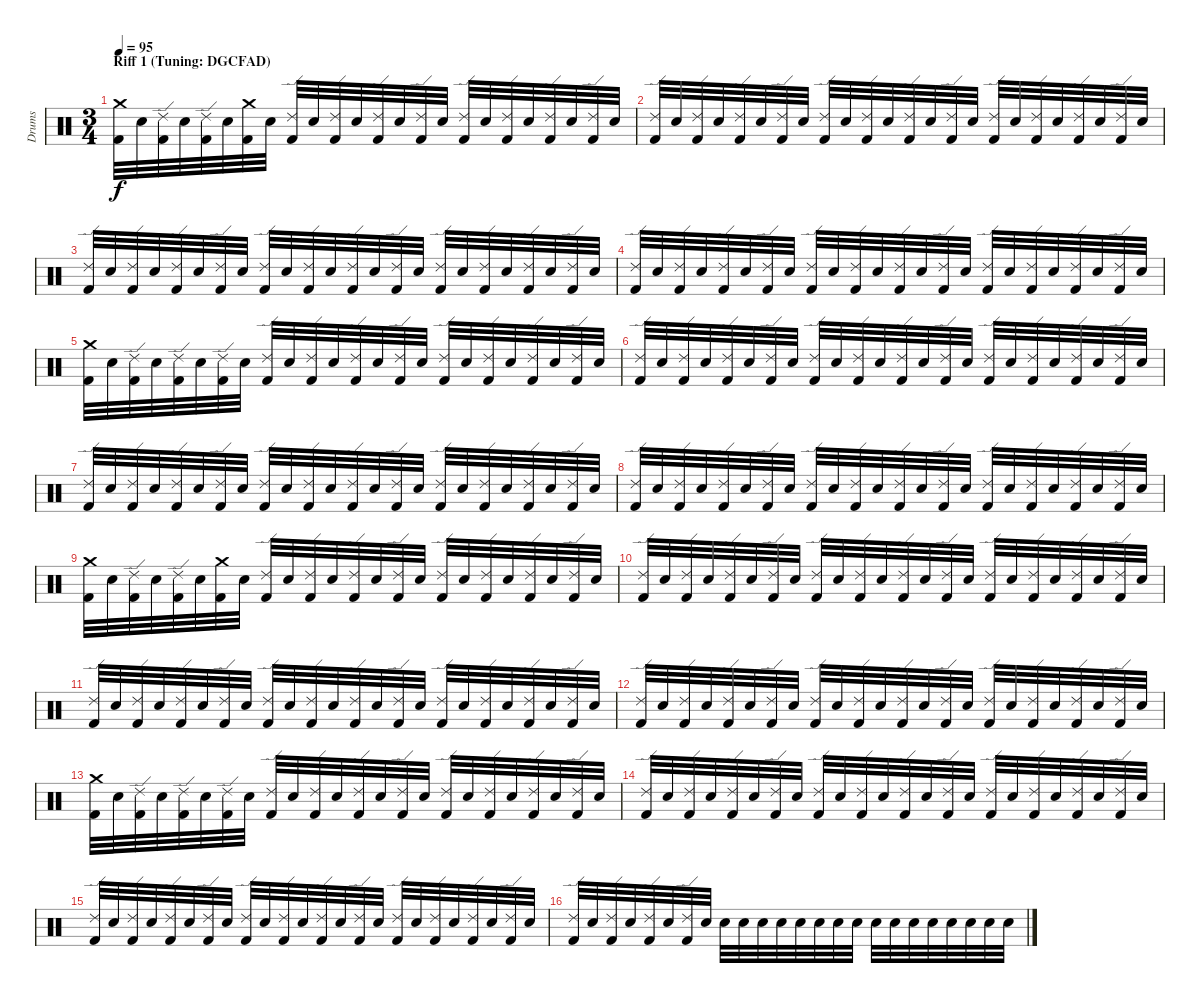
\track ("Drums" "Drums") {instrument percussion}
\staff {score}
\articulation defaults
\ts (3 4)
\section ("" "Riff 1 (Tuning: DGCFAD)")
\tempo 95
\clef neutral
\ks c
("Crash medium (hit)" "Kick (hit) 2").32{dy f} "Electric Snare (hit)".32 ("Ride (edge) 2" "Kick (hit) 2").32 "Electric Snare (hit)".32 ("Ride (edge) 2" "Kick (hit) 2").32 "Electric Snare (hit)".32 ("Crash medium (hit)" "Kick (hit) 2").32 "Electric Snare (hit)".32 ("Ride (edge) 2" "Kick (hit) 2").32 "Electric Snare (hit)".32 ("Ride (edge) 2" "Kick (hit) 2").32 "Electric Snare (hit)".32 ("Ride (edge) 2" "Kick (hit) 2").32 "Electric Snare (hit)".32 ("Ride (edge) 2" "Kick (hit) 2").32 "Electric Snare (hit)".32 ("Ride (edge) 2" "Kick (hit) 2").32 "Electric Snare (hit)".32 ("Ride (edge) 2" "Kick (hit) 2").32 "Electric Snare (hit)".32 ("Ride (edge) 2" "Kick (hit) 2").32 "Electric Snare (hit)".32 ("Ride (edge) 2" "Kick (hit) 2").32 "Electric Snare (hit)".32 |
("Ride (edge) 2" "Kick (hit) 2").32 "Electric Snare (hit)".32 ("Ride (edge) 2" "Kick (hit) 2").32 "Electric Snare (hit)".32 ("Ride (edge) 2" "Kick (hit) 2").32 "Electric Snare (hit)".32 ("Ride (edge) 2" "Kick (hit) 2").32 "Electric Snare (hit)".32 ("Ride (edge) 2" "Kick (hit) 2").32 "Electric Snare (hit)".32 ("Ride (edge) 2" "Kick (hit) 2").32 "Electric Snare (hit)".32 ("Ride (edge) 2" "Kick (hit) 2").32 "Electric Snare (hit)".32 ("Ride (edge) 2" "Kick (hit) 2").32 "Electric Snare (hit)".32 ("Ride (edge) 2" "Kick (hit) 2").32 "Electric Snare (hit)".32 ("Ride (edge) 2" "Kick (hit) 2").32 "Electric Snare (hit)".32 ("Ride (edge) 2" "Kick (hit) 2").32 "Electric Snare (hit)".32 ("Ride (edge) 2" "Kick (hit) 2").32 "Electric Snare (hit)".32 |
("Ride (edge) 2" "Kick (hit) 2").32 "Electric Snare (hit)".32 ("Ride (edge) 2" "Kick (hit) 2").32 "Electric Snare (hit)".32 ("Ride (edge) 2" "Kick (hit) 2").32 "Electric Snare (hit)".32 ("Ride (edge) 2" "Kick (hit) 2").32 "Electric Snare (hit)".32 ("Ride (edge) 2" "Kick (hit) 2").32 "Electric Snare (hit)".32 ("Ride (edge) 2" "Kick (hit) 2").32 "Electric Snare (hit)".32 ("Ride (edge) 2" "Kick (hit) 2").32 "Electric Snare (hit)".32 ("Ride (edge) 2" "Kick (hit) 2").32 "Electric Snare (hit)".32 ("Ride (edge) 2" "Kick (hit) 2").32 "Electric Snare (hit)".32 ("Ride (edge) 2" "Kick (hit) 2").32 "Electric Snare (hit)".32 ("Ride (edge) 2" "Kick (hit) 2").32 "Electric Snare (hit)".32 ("Ride (edge) 2" "Kick (hit) 2").32 "Electric Snare (hit)".32 |
("Ride (edge) 2" "Kick (hit) 2").32 "Electric Snare (hit)".32 ("Ride (edge) 2" "Kick (hit) 2").32 "Electric Snare (hit)".32 ("Ride (edge) 2" "Kick (hit) 2").32 "Electric Snare (hit)".32 ("Ride (edge) 2" "Kick (hit) 2").32 "Electric Snare (hit)".32 ("Ride (edge) 2" "Kick (hit) 2").32 "Electric Snare (hit)".32 ("Ride (edge) 2" "Kick (hit) 2").32 "Electric Snare (hit)".32 ("Ride (edge) 2" "Kick (hit) 2").32 "Electric Snare (hit)".32 ("Ride (edge) 2" "Kick (hit) 2").32 "Electric Snare (hit)".32 ("Ride (edge) 2" "Kick (hit) 2").32 "Electric Snare (hit)".32 ("Ride (edge) 2" "Kick (hit) 2").32 "Electric Snare (hit)".32 ("Ride (edge) 2" "Kick (hit) 2").32 "Electric Snare (hit)".32 ("Ride (edge) 2" "Kick (hit) 2").32 "Electric Snare (hit)".32 |
("Crash medium (hit)" "Kick (hit) 2").32 "Electric Snare (hit)".32 ("Ride (edge) 2" "Kick (hit) 2").32 "Electric Snare (hit)".32 ("Ride (edge) 2" "Kick (hit) 2").32 "Electric Snare (hit)".32 ("Ride (edge) 2" "Kick (hit) 2").32 "Electric Snare (hit)".32 ("Ride (edge) 2" "Kick (hit) 2").32 "Electric Snare (hit)".32 ("Ride (edge) 2" "Kick (hit) 2").32 "Electric Snare (hit)".32 ("Ride (edge) 2" "Kick (hit) 2").32 "Electric Snare (hit)".32 ("Ride (edge) 2" "Kick (hit) 2").32 "Electric Snare (hit)".32 ("Ride (edge) 2" "Kick (hit) 2").32 "Electric Snare (hit)".32 ("Ride (edge) 2" "Kick (hit) 2").32 "Electric Snare (hit)".32 ("Ride (edge) 2" "Kick (hit) 2").32 "Electric Snare (hit)".32 ("Ride (edge) 2" "Kick (hit) 2").32 "Electric Snare (hit)".32 |
("Ride (edge) 2" "Kick (hit) 2").32 "Electric Snare (hit)".32 ("Ride (edge) 2" "Kick (hit) 2").32 "Electric Snare (hit)".32 ("Ride (edge) 2" "Kick (hit) 2").32 "Electric Snare (hit)".32 ("Ride (edge) 2" "Kick (hit) 2").32 "Electric Snare (hit)".32 ("Ride (edge) 2" "Kick (hit) 2").32 "Electric Snare (hit)".32 ("Ride (edge) 2" "Kick (hit) 2").32 "Electric Snare (hit)".32 ("Ride (edge) 2" "Kick (hit) 2").32 "Electric Snare (hit)".32 ("Ride (edge) 2" "Kick (hit) 2").32 "Electric Snare (hit)".32 ("Ride (edge) 2" "Kick (hit) 2").32 "Electric Snare (hit)".32 ("Ride (edge) 2" "Kick (hit) 2").32 "Electric Snare (hit)".32 ("Ride (edge) 2" "Kick (hit) 2").32 "Electric Snare (hit)".32 ("Ride (edge) 2" "Kick (hit) 2").32 "Electric Snare (hit)".32 |
("Ride (edge) 2" "Kick (hit) 2").32 "Electric Snare (hit)".32 ("Ride (edge) 2" "Kick (hit) 2").32 "Electric Snare (hit)".32 ("Ride (edge) 2" "Kick (hit) 2").32 "Electric Snare (hit)".32 ("Ride (edge) 2" "Kick (hit) 2").32 "Electric Snare (hit)".32 ("Ride (edge) 2" "Kick (hit) 2").32 "Electric Snare (hit)".32 ("Ride (edge) 2" "Kick (hit) 2").32 "Electric Snare (hit)".32 ("Ride (edge) 2" "Kick (hit) 2").32 "Electric Snare (hit)".32 ("Ride (edge) 2" "Kick (hit) 2").32 "Electric Snare (hit)".32 ("Ride (edge) 2" "Kick (hit) 2").32 "Electric Snare (hit)".32 ("Ride (edge) 2" "Kick (hit) 2").32 "Electric Snare (hit)".32 ("Ride (edge) 2" "Kick (hit) 2").32 "Electric Snare (hit)".32 ("Ride (edge) 2" "Kick (hit) 2").32 "Electric Snare (hit)".32 |
("Ride (edge) 2" "Kick (hit) 2").32 "Electric Snare (hit)".32 ("Ride (edge) 2" "Kick (hit) 2").32 "Electric Snare (hit)".32 ("Ride (edge) 2" "Kick (hit) 2").32 "Electric Snare (hit)".32 ("Ride (edge) 2" "Kick (hit) 2").32 "Electric Snare (hit)".32 ("Ride (edge) 2" "Kick (hit) 2").32 "Electric Snare (hit)".32 ("Ride (edge) 2" "Kick (hit) 2").32 "Electric Snare (hit)".32 ("Ride (edge) 2" "Kick (hit) 2").32 "Electric Snare (hit)".32 ("Ride (edge) 2" "Kick (hit) 2").32 "Electric Snare (hit)".32 ("Ride (edge) 2" "Kick (hit) 2").32 "Electric Snare (hit)".32 ("Ride (edge) 2" "Kick (hit) 2").32 "Electric Snare (hit)".32 ("Ride (edge) 2" "Kick (hit) 2").32 "Electric Snare (hit)".32 ("Ride (edge) 2" "Kick (hit) 2").32 "Electric Snare (hit)".32 |
("Crash medium (hit)" "Kick (hit) 2").32 "Electric Snare (hit)".32 ("Ride (edge) 2" "Kick (hit) 2").32 "Electric Snare (hit)".32 ("Ride (edge) 2" "Kick (hit) 2").32 "Electric Snare (hit)".32 ("Crash medium (hit)" "Kick (hit) 2").32 "Electric Snare (hit)".32 ("Ride (edge) 2" "Kick (hit) 2").32 "Electric Snare (hit)".32 ("Ride (edge) 2" "Kick (hit) 2").32 "Electric Snare (hit)".32 ("Ride (edge) 2" "Kick (hit) 2").32 "Electric Snare (hit)".32 ("Ride (edge) 2" "Kick (hit) 2").32 "Electric Snare (hit)".32 ("Ride (edge) 2" "Kick (hit) 2").32 "Electric Snare (hit)".32 ("Ride (edge) 2" "Kick (hit) 2").32 "Electric Snare (hit)".32 ("Ride (edge) 2" "Kick (hit) 2").32 "Electric Snare (hit)".32 ("Ride (edge) 2" "Kick (hit) 2").32 "Electric Snare (hit)".32 |
("Ride (edge) 2" "Kick (hit) 2").32 "Electric Snare (hit)".32 ("Ride (edge) 2" "Kick (hit) 2").32 "Electric Snare (hit)".32 ("Ride (edge) 2" "Kick (hit) 2").32 "Electric Snare (hit)".32 ("Ride (edge) 2" "Kick (hit) 2").32 "Electric Snare (hit)".32 ("Ride (edge) 2" "Kick (hit) 2").32 "Electric Snare (hit)".32 ("Ride (edge) 2" "Kick (hit) 2").32 "Electric Snare (hit)".32 ("Ride (edge) 2" "Kick (hit) 2").32 "Electric Snare (hit)".32 ("Ride (edge) 2" "Kick (hit) 2").32 "Electric Snare (hit)".32 ("Ride (edge) 2" "Kick (hit) 2").32 "Electric Snare (hit)".32 ("Ride (edge) 2" "Kick (hit) 2").32 "Electric Snare (hit)".32 ("Ride (edge) 2" "Kick (hit) 2").32 "Electric Snare (hit)".32 ("Ride (edge) 2" "Kick (hit) 2").32 "Electric Snare (hit)".32 |
("Ride (edge) 2" "Kick (hit) 2").32 "Electric Snare (hit)".32 ("Ride (edge) 2" "Kick (hit) 2").32 "Electric Snare (hit)".32 ("Ride (edge) 2" "Kick (hit) 2").32 "Electric Snare (hit)".32 ("Ride (edge) 2" "Kick (hit) 2").32 "Electric Snare (hit)".32 ("Ride (edge) 2" "Kick (hit) 2").32 "Electric Snare (hit)".32 ("Ride (edge) 2" "Kick (hit) 2").32 "Electric Snare (hit)".32 ("Ride (edge) 2" "Kick (hit) 2").32 "Electric Snare (hit)".32 ("Ride (edge) 2" "Kick (hit) 2").32 "Electric Snare (hit)".32 ("Ride (edge) 2" "Kick (hit) 2").32 "Electric Snare (hit)".32 ("Ride (edge) 2" "Kick (hit) 2").32 "Electric Snare (hit)".32 ("Ride (edge) 2" "Kick (hit) 2").32 "Electric Snare (hit)".32 ("Ride (edge) 2" "Kick (hit) 2").32 "Electric Snare (hit)".32 |
("Ride (edge) 2" "Kick (hit) 2").32 "Electric Snare (hit)".32 ("Ride (edge) 2" "Kick (hit) 2").32 "Electric Snare (hit)".32 ("Ride (edge) 2" "Kick (hit) 2").32 "Electric Snare (hit)".32 ("Ride (edge) 2" "Kick (hit) 2").32 "Electric Snare (hit)".32 ("Ride (edge) 2" "Kick (hit) 2").32 "Electric Snare (hit)".32 ("Ride (edge) 2" "Kick (hit) 2").32 "Electric Snare (hit)".32 ("Ride (edge) 2" "Kick (hit) 2").32 "Electric Snare (hit)".32 ("Ride (edge) 2" "Kick (hit) 2").32 "Electric Snare (hit)".32 ("Ride (edge) 2" "Kick (hit) 2").32 "Electric Snare (hit)".32 ("Ride (edge) 2" "Kick (hit) 2").32 "Electric Snare (hit)".32 ("Ride (edge) 2" "Kick (hit) 2").32 "Electric Snare (hit)".32 ("Ride (edge) 2" "Kick (hit) 2").32 "Electric Snare (hit)".32 |
("Crash medium (hit)" "Kick (hit) 2").32 "Electric Snare (hit)".32 ("Ride (edge) 2" "Kick (hit) 2").32 "Electric Snare (hit)".32 ("Ride (edge) 2" "Kick (hit) 2").32 "Electric Snare (hit)".32 ("Ride (edge) 2" "Kick (hit) 2").32 "Electric Snare (hit)".32 ("Ride (edge) 2" "Kick (hit) 2").32 "Electric Snare (hit)".32 ("Ride (edge) 2" "Kick (hit) 2").32 "Electric Snare (hit)".32 ("Ride (edge) 2" "Kick (hit) 2").32 "Electric Snare (hit)".32 ("Ride (edge) 2" "Kick (hit) 2").32 "Electric Snare (hit)".32 ("Ride (edge) 2" "Kick (hit) 2").32 "Electric Snare (hit)".32 ("Ride (edge) 2" "Kick (hit) 2").32 "Electric Snare (hit)".32 ("Ride (edge) 2" "Kick (hit) 2").32 "Electric Snare (hit)".32 ("Ride (edge) 2" "Kick (hit) 2").32 "Electric Snare (hit)".32 |
("Ride (edge) 2" "Kick (hit) 2").32 "Electric Snare (hit)".32 ("Ride (edge) 2" "Kick (hit) 2").32 "Electric Snare (hit)".32 ("Ride (edge) 2" "Kick (hit) 2").32 "Electric Snare (hit)".32 ("Ride (edge) 2" "Kick (hit) 2").32 "Electric Snare (hit)".32 ("Ride (edge) 2" "Kick (hit) 2").32 "Electric Snare (hit)".32 ("Ride (edge) 2" "Kick (hit) 2").32 "Electric Snare (hit)".32 ("Ride (edge) 2" "Kick (hit) 2").32 "Electric Snare (hit)".32 ("Ride (edge) 2" "Kick (hit) 2").32 "Electric Snare (hit)".32 ("Ride (edge) 2" "Kick (hit) 2").32 "Electric Snare (hit)".32 ("Ride (edge) 2" "Kick (hit) 2").32 "Electric Snare (hit)".32 ("Ride (edge) 2" "Kick (hit) 2").32 "Electric Snare (hit)".32 ("Ride (edge) 2" "Kick (hit) 2").32 "Electric Snare (hit)".32 |
("Ride (edge) 2" "Kick (hit) 2").32 "Electric Snare (hit)".32 ("Ride (edge) 2" "Kick (hit) 2").32 "Electric Snare (hit)".32 ("Ride (edge) 2" "Kick (hit) 2").32 "Electric Snare (hit)".32 ("Ride (edge) 2" "Kick (hit) 2").32 "Electric Snare (hit)".32 ("Ride (edge) 2" "Kick (hit) 2").32 "Electric Snare (hit)".32 ("Ride (edge) 2" "Kick (hit) 2").32 "Electric Snare (hit)".32 ("Ride (edge) 2" "Kick (hit) 2").32 "Electric Snare (hit)".32 ("Ride (edge) 2" "Kick (hit) 2").32 "Electric Snare (hit)".32 ("Ride (edge) 2" "Kick (hit) 2").32 "Electric Snare (hit)".32 ("Ride (edge) 2" "Kick (hit) 2").32 "Electric Snare (hit)".32 ("Ride (edge) 2" "Kick (hit) 2").32 "Electric Snare (hit)".32 ("Ride (edge) 2" "Kick (hit) 2").32 "Electric Snare (hit)".32 |
("Ride (edge) 2" "Kick (hit) 2").32 "Electric Snare (hit)".32 ("Ride (edge) 2" "Kick (hit) 2").32 "Electric Snare (hit)".32 ("Ride (edge) 2" "Kick (hit) 2").32 "Electric Snare (hit)".32 ("Ride (edge) 2" "Kick (hit) 2").32 "Electric Snare (hit)".32 "Electric Snare (hit)".32 "Electric Snare (hit)".32 "Electric Snare (hit)".32 "Electric Snare (hit)".32 "Electric Snare (hit)".32 "Electric Snare (hit)".32 "Electric Snare (hit)".32 "Electric Snare (hit)".32 "Electric Snare (hit)".32 "Electric Snare (hit)".32 "Electric Snare (hit)".32 "Electric Snare (hit)".32 "Electric Snare (hit)".32 "Electric Snare (hit)".32 "Electric Snare (hit)".32 "Electric Snare (hit)".32
